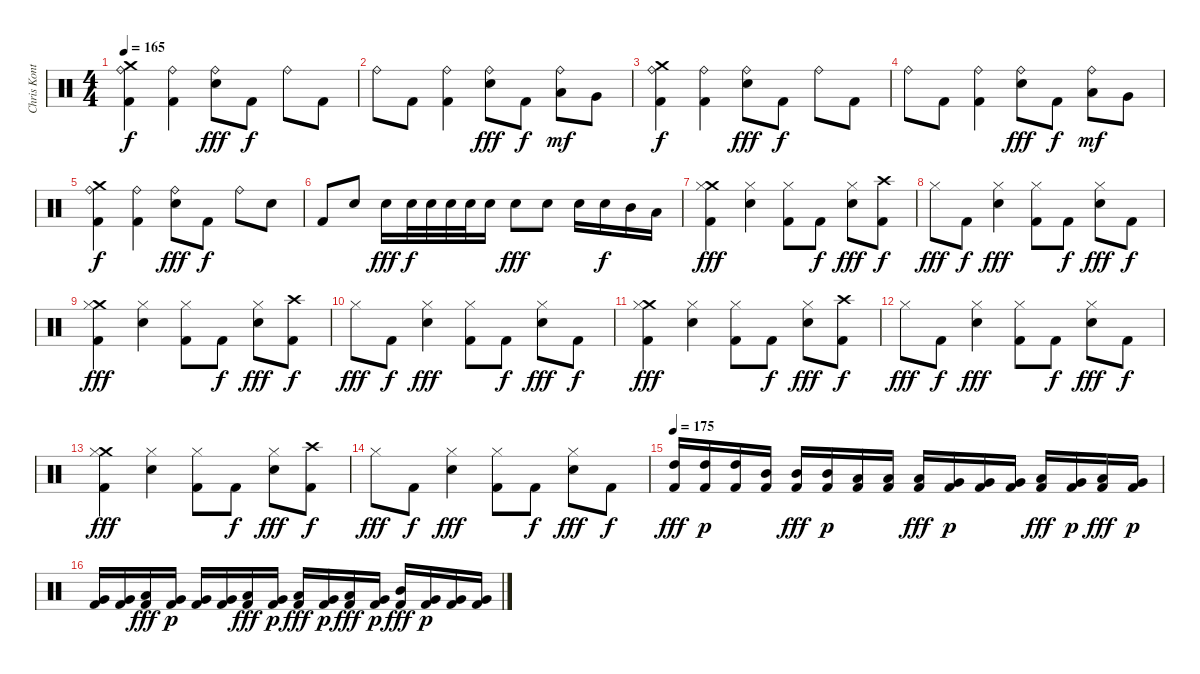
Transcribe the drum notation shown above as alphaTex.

\track ("Chris Kontos" "Chris Kont") {instrument percussion}
\staff {score}
\articulation defaults
\ts (4 4)
\tempo 165
\clef neutral
\ks c
("Crash medium (hit)" "Ride (bell)" "Kick (hit) 2").4{dy f} ("Ride (bell)" "Kick (hit) 2").4 ("Electric Snare (hit)" "Ride (bell)").8{dy fff} "Kick (hit) 2".8{dy f} "Ride (bell)".8 "Kick (hit) 2".8 |
"Ride (bell)".8 "Kick (hit) 2".8 ("Ride (bell)" "Kick (hit) 2").4 ("Electric Snare (hit)" "Ride (bell)").8{dy fff} "Kick (hit) 2".8{dy f} ("Low Tom (hit)" "Ride (bell)").8{dy mf} "Very Low Tom (hit)".8 |
("Crash medium (hit)" "Ride (bell)" "Kick (hit) 2").4{dy f} ("Ride (bell)" "Kick (hit) 2").4 ("Electric Snare (hit)" "Ride (bell)").8{dy fff} "Kick (hit) 2".8{dy f} "Ride (bell)".8 "Kick (hit) 2".8 |
"Ride (bell)".8 "Kick (hit) 2".8 ("Ride (bell)" "Kick (hit) 2").4 ("Electric Snare (hit)" "Ride (bell)").8{dy fff} "Kick (hit) 2".8{dy f} ("Low Tom (hit)" "Ride (bell)").8{dy mf} "Very Low Tom (hit)".8 |
("Crash medium (hit)" "Ride (bell)" "Kick (hit) 2").4{dy f} ("Ride (bell)" "Kick (hit) 2").4 ("Electric Snare (hit)" "Ride (bell)").8{dy fff} "Kick (hit) 2".8{dy f} "Ride (bell)".8 "Electric Snare (hit)".8 |
"Kick (hit) 2".8 "Electric Snare (hit)".8 "Electric Snare (hit)".16{dy fff} "Electric Snare (hit)".32{dy f} "Electric Snare (hit)".32 "Electric Snare (hit)".32 "Electric Snare (hit)".32 "Electric Snare (hit)".16 "Electric Snare (hit)".8{dy fff} "Electric Snare (hit)".8 "Electric Snare (hit)".16 "Electric Snare (hit)".16{dy f} "Mid Tom (hit)".16 "Low Tom (hit)".16 |
("Crash medium (hit)" "Hi-Hat (closed)" "Kick (hit) 2").4{dy fff} ("Electric Snare (hit)" "Hi-Hat (closed)").4 ("Hi-Hat (closed)" "Kick (hit) 2").8 "Kick (hit) 2".8{dy f} ("Electric Snare (hit)" "Hi-Hat (closed)").8{dy fff} ("Crash high (hit)" "Kick (hit) 2").8{dy f} |
"Hi-Hat (closed)".8{dy fff} "Kick (hit) 2".8{dy f} ("Electric Snare (hit)" "Hi-Hat (closed)").4{dy fff} ("Hi-Hat (closed)" "Kick (hit) 2").8 "Kick (hit) 2".8{dy f} ("Electric Snare (hit)" "Hi-Hat (closed)").8{dy fff} "Kick (hit) 2".8{dy f} |
("Crash medium (hit)" "Hi-Hat (closed)" "Kick (hit) 2").4{dy fff} ("Electric Snare (hit)" "Hi-Hat (closed)").4 ("Hi-Hat (closed)" "Kick (hit) 2").8 "Kick (hit) 2".8{dy f} ("Electric Snare (hit)" "Hi-Hat (closed)").8{dy fff} ("Crash high (hit)" "Kick (hit) 2").8{dy f} |
"Hi-Hat (closed)".8{dy fff} "Kick (hit) 2".8{dy f} ("Electric Snare (hit)" "Hi-Hat (closed)").4{dy fff} ("Hi-Hat (closed)" "Kick (hit) 2").8 "Kick (hit) 2".8{dy f} ("Electric Snare (hit)" "Hi-Hat (closed)").8{dy fff} "Kick (hit) 2".8{dy f} |
("Crash medium (hit)" "Hi-Hat (closed)" "Kick (hit) 2").4{dy fff} ("Electric Snare (hit)" "Hi-Hat (closed)").4 ("Hi-Hat (closed)" "Kick (hit) 2").8 "Kick (hit) 2".8{dy f} ("Electric Snare (hit)" "Hi-Hat (closed)").8{dy fff} ("Crash high (hit)" "Kick (hit) 2").8{dy f} |
"Hi-Hat (closed)".8{dy fff} "Kick (hit) 2".8{dy f} ("Electric Snare (hit)" "Hi-Hat (closed)").4{dy fff} ("Hi-Hat (closed)" "Kick (hit) 2").8 "Kick (hit) 2".8{dy f} ("Electric Snare (hit)" "Hi-Hat (closed)").8{dy fff} "Kick (hit) 2".8{dy f} |
("Crash medium (hit)" "Hi-Hat (closed)" "Kick (hit) 2").4{dy fff} ("Electric Snare (hit)" "Hi-Hat (closed)").4 ("Hi-Hat (closed)" "Kick (hit) 2").8 "Kick (hit) 2".8{dy f} ("Electric Snare (hit)" "Hi-Hat (closed)").8{dy fff} ("Crash high (hit)" "Kick (hit) 2").8{dy f} |
"Hi-Hat (closed)".8{dy fff} "Kick (hit) 2".8{dy f} ("Electric Snare (hit)" "Hi-Hat (closed)").4{dy fff} ("Hi-Hat (closed)" "Kick (hit) 2").8 "Kick (hit) 2".8{dy f} ("Electric Snare (hit)" "Hi-Hat (closed)").8{dy fff} "Kick (hit) 2".8{dy f} |
\tempo 175
("High Tom (hit)" "Kick (hit) 2").16{dy fff} ("High Tom (hit)" "Kick (hit) 2").16{dy p} ("High Tom (hit)" "Kick (hit) 2").16 ("Mid Tom (hit)" "Kick (hit) 2").16 ("Mid Tom (hit)" "Kick (hit) 2").16{dy fff} ("Mid Tom (hit)" "Kick (hit) 2").16{dy p} ("Low Tom (hit)" "Kick (hit) 2").16 ("Low Tom (hit)" "Kick (hit) 2").16 ("Low Tom (hit)" "Kick (hit) 2").16{dy fff} ("Very Low Tom (hit)" "Kick (hit) 2").16{dy p} ("Very Low Tom (hit)" "Kick (hit) 2").16 ("Very Low Tom (hit)" "Kick (hit) 2").16 ("Low Tom (hit)" "Kick (hit) 2").16{dy fff} ("Very Low Tom (hit)" "Kick (hit) 2").16{dy p} ("Low Tom (hit)" "Kick (hit) 2").16{dy fff} ("Very Low Tom (hit)" "Kick (hit) 2").16{dy p} |
("Very Low Tom (hit)" "Kick (hit) 2").16 ("Very Low Tom (hit)" "Kick (hit) 2").16 ("Low Tom (hit)" "Kick (hit) 2").16{dy fff} ("Very Low Tom (hit)" "Kick (hit) 2").16{dy p} ("Very Low Tom (hit)" "Kick (hit) 2").16 ("Very Low Tom (hit)" "Kick (hit) 2").16 ("Low Tom (hit)" "Kick (hit) 2").16{dy fff} ("Very Low Tom (hit)" "Kick (hit) 2").16{dy p} ("Low Tom (hit)" "Kick (hit) 2").16{dy fff} ("Very Low Tom (hit)" "Kick (hit) 2").16{dy p} ("Low Tom (hit)" "Kick (hit) 2").16{dy fff} ("Very Low Tom (hit)" "Kick (hit) 2").16{dy p} ("Mid Tom (hit)" "Kick (hit) 2").16{dy fff} ("Very Low Tom (hit)" "Kick (hit) 2").16{dy p} ("Very Low Tom (hit)" "Kick (hit) 2").16 ("Very Low Tom (hit)" "Kick (hit) 2").16
